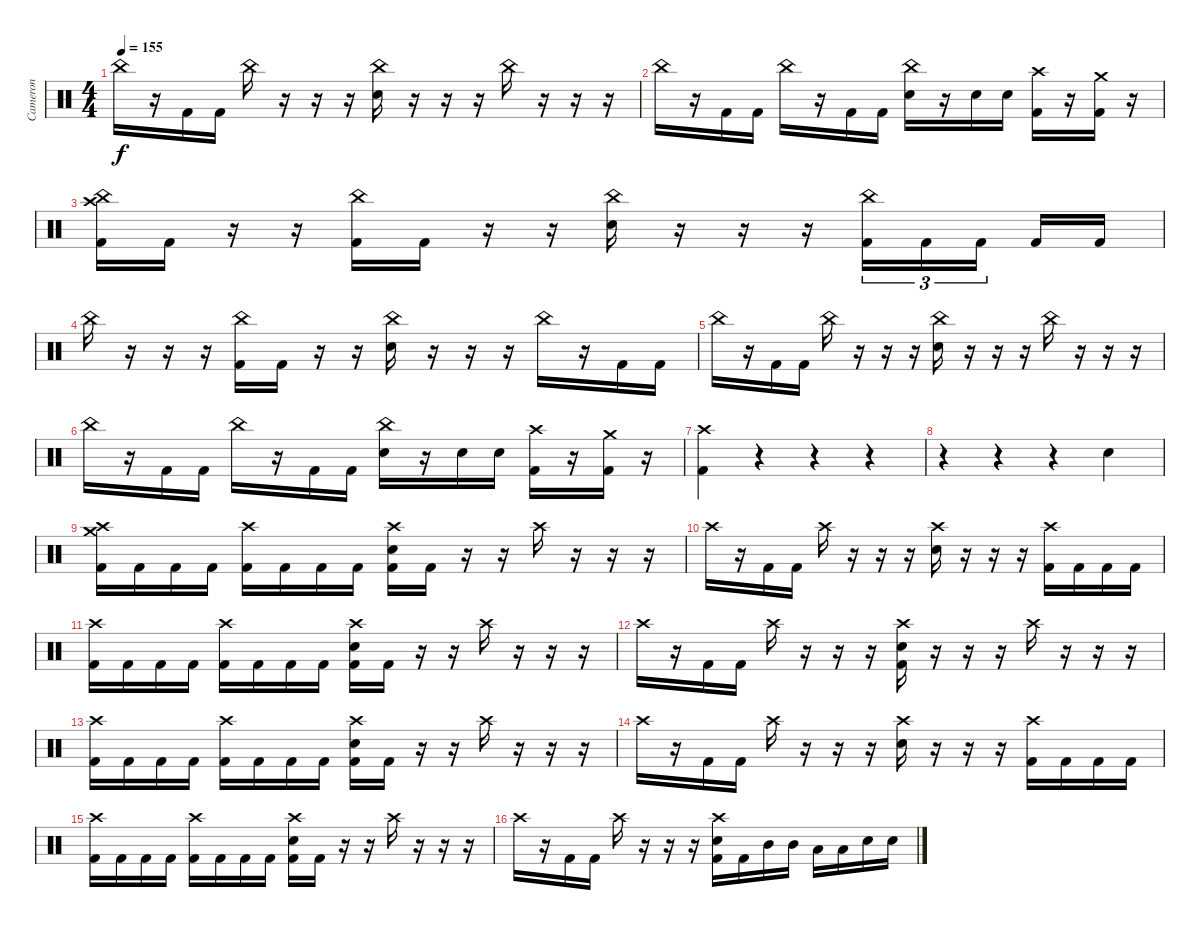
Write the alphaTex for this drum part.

\track ("Cameron" "Cameron") {instrument percussion}
\staff {score}
\articulation defaults
\ts (4 4)
\tempo 155
\clef neutral
\ks c "China (hit)".16{dy f}
r.16 "Kick (hit) 2".16 "Kick (hit) 2".16 "China (hit)".16 r.16 r.16 r.16 ("China (hit)" "Snare (hit) 2").16 r.16 r.16 r.16 "China (hit)".16 r.16 r.16 r.16 |
"China (hit)".16 r.16 "Kick (hit) 2".16 "Kick (hit) 2".16 "China (hit)".16 r.16 "Kick (hit) 2".16 "Kick (hit) 2".16 ("China (hit)" "Snare (hit) 2").16 r.16 "Snare (hit) 2".16 "Snare (hit) 2".16 ("Crash high (hit)" "Kick (hit) 2").16 r.16 ("Crash medium (hit)" "Kick (hit) 2").16 r.16 |
("Crash high (hit)" "China (hit)" "Kick (hit) 2").16 "Kick (hit) 2".16 r.16 r.16 ("China (hit)" "Kick (hit) 2").16 "Kick (hit) 2".16 r.16 r.16 ("China (hit)" "Snare (hit) 2").16 r.16 r.16 r.16 ("China (hit)" "Kick (hit) 2").16{tu (3 2)} "Kick (hit) 2".16{tu (3 2)} "Kick (hit) 2".16{tu (3 2) beam splitsecondary} "Kick (hit) 2".16 "Kick (hit) 2".16 |
"China (hit)".16 r.16 r.16 r.16 ("China (hit)" "Kick (hit) 2").16 "Kick (hit) 2".16 r.16 r.16 ("China (hit)" "Snare (hit) 2").16 r.16 r.16 r.16 "China (hit)".16 r.16 "Kick (hit) 2".16 "Kick (hit) 2".16 |
"China (hit)".16 r.16 "Kick (hit) 2".16 "Kick (hit) 2".16 "China (hit)".16 r.16 r.16 r.16 ("China (hit)" "Snare (hit) 2").16 r.16 r.16 r.16 "China (hit)".16 r.16 r.16 r.16 |
"China (hit)".16 r.16 "Kick (hit) 2".16 "Kick (hit) 2".16 "China (hit)".16 r.16 "Kick (hit) 2".16 "Kick (hit) 2".16 ("China (hit)" "Snare (hit) 2").16 r.16 "Snare (hit) 2".16 "Snare (hit) 2".16 ("Crash high (hit)" "Kick (hit) 2").16 r.16 ("Crash medium (hit)" "Kick (hit) 2").16 r.16 |
("Crash high (hit)" "Kick (hit) 2").4 r.4 r.4 r.4 |
r.4 r.4 r.4 "Snare (hit) 2".4 |
("Crash medium (hit)" "Crash high (hit)" "Kick (hit) 2").16 "Kick (hit) 2".16 "Kick (hit) 2".16 "Kick (hit) 2".16 ("Crash high (hit)" "Kick (hit) 2").16 "Kick (hit) 2".16 "Kick (hit) 2".16 "Kick (hit) 2".16 ("Crash high (hit)" "Snare (hit) 2" "Kick (hit) 2").16 "Kick (hit) 2".16 r.16 r.16 "Crash high (hit)".16 r.16 r.16 r.16 |
"Crash high (hit)".16 r.16 "Kick (hit) 2".16 "Kick (hit) 2".16 "Crash high (hit)".16 r.16 r.16 r.16 ("Crash high (hit)" "Snare (hit) 2").16 r.16 r.16 r.16 ("Crash high (hit)" "Kick (hit) 2").16 "Kick (hit) 2".16 "Kick (hit) 2".16 "Kick (hit) 2".16 |
("Crash high (hit)" "Kick (hit) 2").16 "Kick (hit) 2".16 "Kick (hit) 2".16 "Kick (hit) 2".16 ("Crash high (hit)" "Kick (hit) 2").16 "Kick (hit) 2".16 "Kick (hit) 2".16 "Kick (hit) 2".16 ("Crash high (hit)" "Snare (hit) 2" "Kick (hit) 2").16 "Kick (hit) 2".16 r.16 r.16 "Crash high (hit)".16 r.16 r.16 r.16 |
"Crash high (hit)".16 r.16 "Kick (hit) 2".16 "Kick (hit) 2".16 "Crash high (hit)".16 r.16 r.16 r.16 ("Crash high (hit)" "Snare (hit) 2" "Kick (hit) 2").16 r.16 r.16 r.16 "Crash high (hit)".16 r.16 r.16 r.16 |
("Crash high (hit)" "Kick (hit) 2").16 "Kick (hit) 2".16 "Kick (hit) 2".16 "Kick (hit) 2".16 ("Crash high (hit)" "Kick (hit) 2").16 "Kick (hit) 2".16 "Kick (hit) 2".16 "Kick (hit) 2".16 ("Crash high (hit)" "Snare (hit) 2" "Kick (hit) 2").16 "Kick (hit) 2".16 r.16 r.16 "Crash high (hit)".16 r.16 r.16 r.16 |
"Crash high (hit)".16 r.16 "Kick (hit) 2".16 "Kick (hit) 2".16 "Crash high (hit)".16 r.16 r.16 r.16 ("Crash high (hit)" "Snare (hit) 2").16 r.16 r.16 r.16 ("Crash high (hit)" "Kick (hit) 2").16 "Kick (hit) 2".16 "Kick (hit) 2".16 "Kick (hit) 2".16 |
("Crash high (hit)" "Kick (hit) 2").16 "Kick (hit) 2".16 "Kick (hit) 2".16 "Kick (hit) 2".16 ("Crash high (hit)" "Kick (hit) 2").16 "Kick (hit) 2".16 "Kick (hit) 2".16 "Kick (hit) 2".16 ("Crash high (hit)" "Snare (hit) 2" "Kick (hit) 2").16 "Kick (hit) 2".16 r.16 r.16 "Crash high (hit)".16 r.16 r.16 r.16 |
"Crash high (hit)".16 r.16 "Kick (hit) 2".16 "Kick (hit) 2".16 "Crash high (hit)".16 r.16 r.16 r.16 ("Crash high (hit)" "Snare (hit) 2" "Kick (hit) 2").16 "Kick (hit) 2".16 "Mid Tom (hit)".16 "Mid Tom (hit)".16 "Low Tom (hit)".16 "Low Tom (hit)".16 "Snare (hit) 2".16 "Snare (hit) 2".16
